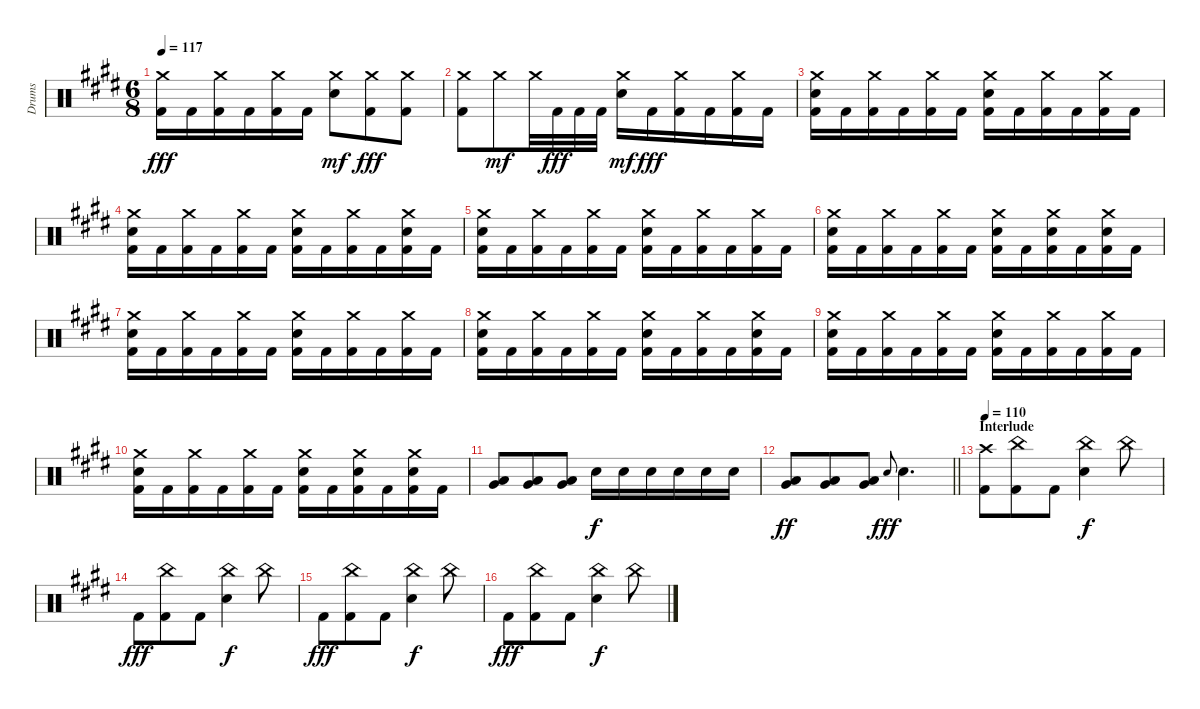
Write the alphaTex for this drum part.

\track ("Drums" "Drums") {instrument percussion}
\staff {score}
\articulation defaults
\ts (6 8)
\tempo 117
\clef neutral
\ks c#minor
("Crash medium (hit)" "Kick (hit) 2").16{dy fff} "Kick (hit) 2".16 ("Crash medium (hit)" "Kick (hit) 2").16 "Kick (hit) 2".16 ("Crash medium (hit)" "Kick (hit) 2").16 "Kick (hit) 2".16 ("Crash medium (hit)" "Electric Snare (hit)").8{dy mf} ("Crash medium (hit)" "Kick (hit) 2").8{dy fff} ("Crash medium (hit)" "Kick (hit) 2").8 |
("Crash medium (hit)" "Kick (hit) 2").8 "Crash medium (hit)".8{dy mf} "Crash medium (hit)".32 "Kick (hit) 2".32{dy fff} "Kick (hit) 2".32 "Kick (hit) 2".32 ("Crash medium (hit)" "Electric Snare (hit)").16{dy mf} "Kick (hit) 2".16{dy fff} ("Crash medium (hit)" "Kick (hit) 2").16 "Kick (hit) 2".16 ("Crash medium (hit)" "Kick (hit) 2").16 "Kick (hit) 2".16 |
("Crash medium (hit)" "Electric Snare (hit)" "Kick (hit) 2").16 "Kick (hit) 2".16 ("Crash medium (hit)" "Kick (hit) 2").16 "Kick (hit) 2".16 ("Crash medium (hit)" "Kick (hit) 2").16 "Kick (hit) 2".16 ("Crash medium (hit)" "Electric Snare (hit)" "Kick (hit) 2").16 "Kick (hit) 2".16 ("Crash medium (hit)" "Kick (hit) 2").16 "Kick (hit) 2".16 ("Crash medium (hit)" "Kick (hit) 2").16 "Kick (hit) 2".16 |
("Crash medium (hit)" "Electric Snare (hit)" "Kick (hit) 2").16 "Kick (hit) 2".16 ("Crash medium (hit)" "Kick (hit) 2").16 "Kick (hit) 2".16 ("Crash medium (hit)" "Kick (hit) 2").16 "Kick (hit) 2".16 ("Crash medium (hit)" "Electric Snare (hit)" "Kick (hit) 2").16 "Kick (hit) 2".16 ("Crash medium (hit)" "Kick (hit) 2").16 "Kick (hit) 2".16 ("Crash medium (hit)" "Electric Snare (hit)" "Kick (hit) 2").16 "Kick (hit) 2".16 |
("Crash medium (hit)" "Electric Snare (hit)" "Kick (hit) 2").16 "Kick (hit) 2".16 ("Crash medium (hit)" "Kick (hit) 2").16 "Kick (hit) 2".16 ("Crash medium (hit)" "Kick (hit) 2").16 "Kick (hit) 2".16 ("Crash medium (hit)" "Electric Snare (hit)" "Kick (hit) 2").16 "Kick (hit) 2".16 ("Crash medium (hit)" "Kick (hit) 2").16 "Kick (hit) 2".16 ("Crash medium (hit)" "Kick (hit) 2").16 "Kick (hit) 2".16 |
("Crash medium (hit)" "Electric Snare (hit)" "Kick (hit) 2").16 "Kick (hit) 2".16 ("Crash medium (hit)" "Kick (hit) 2").16 "Kick (hit) 2".16 ("Crash medium (hit)" "Kick (hit) 2").16 "Kick (hit) 2".16 ("Crash medium (hit)" "Electric Snare (hit)" "Kick (hit) 2").16 "Kick (hit) 2".16 ("Crash medium (hit)" "Electric Snare (hit)" "Kick (hit) 2").16 "Kick (hit) 2".16 ("Crash medium (hit)" "Electric Snare (hit)" "Kick (hit) 2").16 "Kick (hit) 2".16 |
("Crash medium (hit)" "Electric Snare (hit)" "Kick (hit) 2").16 "Kick (hit) 2".16 ("Crash medium (hit)" "Kick (hit) 2").16 "Kick (hit) 2".16 ("Crash medium (hit)" "Kick (hit) 2").16 "Kick (hit) 2".16 ("Crash medium (hit)" "Electric Snare (hit)" "Kick (hit) 2").16 "Kick (hit) 2".16 ("Crash medium (hit)" "Kick (hit) 2").16 "Kick (hit) 2".16 ("Crash medium (hit)" "Kick (hit) 2").16 "Kick (hit) 2".16 |
("Crash medium (hit)" "Electric Snare (hit)" "Kick (hit) 2").16 "Kick (hit) 2".16 ("Crash medium (hit)" "Kick (hit) 2").16 "Kick (hit) 2".16 ("Crash medium (hit)" "Kick (hit) 2").16 "Kick (hit) 2".16 ("Crash medium (hit)" "Electric Snare (hit)" "Kick (hit) 2").16 "Kick (hit) 2".16 ("Crash medium (hit)" "Kick (hit) 2").16 "Kick (hit) 2".16 ("Crash medium (hit)" "Electric Snare (hit)" "Kick (hit) 2").16 "Kick (hit) 2".16 |
("Crash medium (hit)" "Electric Snare (hit)" "Kick (hit) 2").16 "Kick (hit) 2".16 ("Crash medium (hit)" "Kick (hit) 2").16 "Kick (hit) 2".16 ("Crash medium (hit)" "Kick (hit) 2").16 "Kick (hit) 2".16 ("Crash medium (hit)" "Electric Snare (hit)" "Kick (hit) 2").16 "Kick (hit) 2".16 ("Crash medium (hit)" "Kick (hit) 2").16 "Kick (hit) 2".16 ("Crash medium (hit)" "Kick (hit) 2").16 "Kick (hit) 2".16 |
("Crash medium (hit)" "Electric Snare (hit)" "Kick (hit) 2").16 "Kick (hit) 2".16 ("Crash medium (hit)" "Kick (hit) 2").16 "Kick (hit) 2".16 ("Crash medium (hit)" "Kick (hit) 2").16 "Kick (hit) 2".16 ("Crash medium (hit)" "Electric Snare (hit)" "Kick (hit) 2").16 "Kick (hit) 2".16 ("Crash medium (hit)" "Electric Snare (hit)" "Kick (hit) 2").16 "Kick (hit) 2".16 ("Crash medium (hit)" "Electric Snare (hit)" "Kick (hit) 2").16 "Kick (hit) 2".16 |
("Very Low Tom (hit)" "Low Floor Tom (hit)").8 ("Very Low Tom (hit)" "Low Floor Tom (hit)").8 ("Very Low Tom (hit)" "Low Floor Tom (hit)").8 "Electric Snare (hit)".16{dy f} "Electric Snare (hit)".16 "Electric Snare (hit)".16 "Electric Snare (hit)".16 "Electric Snare (hit)".16 "Electric Snare (hit)".16 |
\barLineRight lightlight
("Very Low Tom (hit)" "Low Floor Tom (hit)").8{dy ff} ("Very Low Tom (hit)" "Low Floor Tom (hit)").8 ("Very Low Tom (hit)" "Low Floor Tom (hit)").8 "Electric Snare (hit)".8{gr onbeat dy fff} "Electric Snare (hit)".4{d} |
\section ("" "Interlude")
\tempo 110
("Crash high (hit)" "Kick (hit) 2").8 ("China (hit)" "Kick (hit) 2").8 "Kick (hit) 2".8 ("China (hit)" "Electric Snare (hit)").4{dy f} "China (hit)".8 |
"Kick (hit) 2".8{dy fff} ("China (hit)" "Kick (hit) 2").8 "Kick (hit) 2".8 ("China (hit)" "Electric Snare (hit)").4{dy f} "China (hit)".8 |
"Kick (hit) 2".8{dy fff} ("China (hit)" "Kick (hit) 2").8 "Kick (hit) 2".8 ("China (hit)" "Electric Snare (hit)").4{dy f} "China (hit)".8 |
"Kick (hit) 2".8{dy fff} ("China (hit)" "Kick (hit) 2").8 "Kick (hit) 2".8 ("China (hit)" "Electric Snare (hit)").4{dy f} "China (hit)".8
